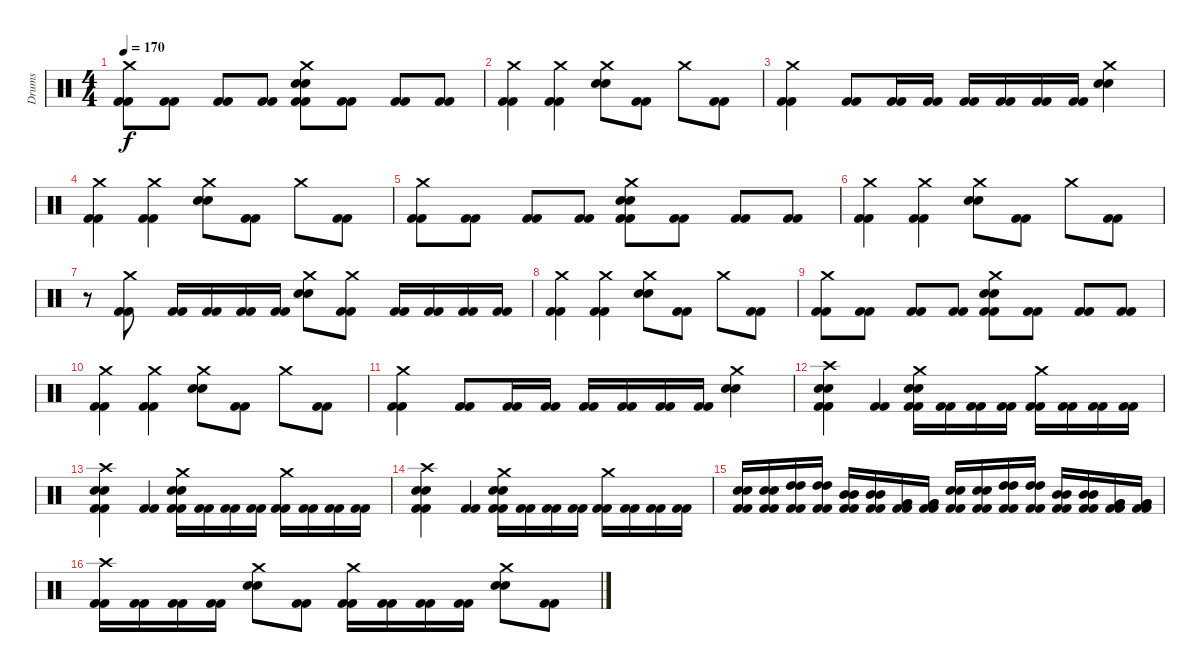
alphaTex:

\track ("Drums" "Drums") {instrument percussion}
\staff {score}
\articulation defaults
\ts (4 4)
\tempo 170
\clef neutral
\ks c
("Crash medium (hit)" "Kick (hit) 2" "Kick (hit) 2").8{dy f} ("Kick (hit) 2" "Kick (hit) 2").8 ("Kick (hit) 2" "Kick (hit) 2").8 ("Kick (hit) 2" "Kick (hit) 2").8 ("Crash medium (hit)" "Snare (hit) 2" "Snare (hit) 2" "Kick (hit) 2" "Kick (hit) 2").8 ("Kick (hit) 2" "Kick (hit) 2").8 ("Kick (hit) 2" "Kick (hit) 2").8 ("Kick (hit) 2" "Kick (hit) 2").8 |
("Crash medium (hit)" "Kick (hit) 2" "Kick (hit) 2").4 ("Crash medium (hit)" "Kick (hit) 2" "Kick (hit) 2").4 ("Crash medium (hit)" "Snare (hit) 2" "Snare (hit) 2").8 ("Kick (hit) 2" "Kick (hit) 2").8 "Crash medium (hit)".8 ("Kick (hit) 2" "Kick (hit) 2").8 |
("Crash medium (hit)" "Kick (hit) 2" "Kick (hit) 2").4 ("Kick (hit) 2" "Kick (hit) 2").8 ("Kick (hit) 2" "Kick (hit) 2").16 ("Kick (hit) 2" "Kick (hit) 2").16 ("Kick (hit) 2" "Kick (hit) 2").16 ("Kick (hit) 2" "Kick (hit) 2").16 ("Kick (hit) 2" "Kick (hit) 2").16 ("Kick (hit) 2" "Kick (hit) 2").16 ("Crash medium (hit)" "Snare (hit) 2" "Snare (hit) 2").4 |
("Crash medium (hit)" "Kick (hit) 2" "Kick (hit) 2").4 ("Crash medium (hit)" "Kick (hit) 2" "Kick (hit) 2").4 ("Crash medium (hit)" "Snare (hit) 2" "Snare (hit) 2").8 ("Kick (hit) 2" "Kick (hit) 2").8 "Crash medium (hit)".8 ("Kick (hit) 2" "Kick (hit) 2").8 |
("Crash medium (hit)" "Kick (hit) 2" "Kick (hit) 2").8 ("Kick (hit) 2" "Kick (hit) 2").8 ("Kick (hit) 2" "Kick (hit) 2").8 ("Kick (hit) 2" "Kick (hit) 2").8 ("Crash medium (hit)" "Snare (hit) 2" "Snare (hit) 2" "Kick (hit) 2" "Kick (hit) 2").8 ("Kick (hit) 2" "Kick (hit) 2").8 ("Kick (hit) 2" "Kick (hit) 2").8 ("Kick (hit) 2" "Kick (hit) 2").8 |
("Crash medium (hit)" "Kick (hit) 2" "Kick (hit) 2").4 ("Crash medium (hit)" "Kick (hit) 2" "Kick (hit) 2").4 ("Crash medium (hit)" "Snare (hit) 2" "Snare (hit) 2").8 ("Kick (hit) 2" "Kick (hit) 2").8 "Crash medium (hit)".8 ("Kick (hit) 2" "Kick (hit) 2").8 |
r.8 ("Crash medium (hit)" "Kick (hit) 2" "Kick (hit) 2").8 ("Kick (hit) 2" "Kick (hit) 2").16 ("Kick (hit) 2" "Kick (hit) 2").16 ("Kick (hit) 2" "Kick (hit) 2").16 ("Kick (hit) 2" "Kick (hit) 2").16 ("Crash medium (hit)" "Snare (hit) 2" "Snare (hit) 2").8 ("Crash medium (hit)" "Kick (hit) 2" "Kick (hit) 2").8 ("Kick (hit) 2" "Kick (hit) 2").16 ("Kick (hit) 2" "Kick (hit) 2").16 ("Kick (hit) 2" "Kick (hit) 2").16 ("Kick (hit) 2" "Kick (hit) 2").16 |
("Crash medium (hit)" "Kick (hit) 2" "Kick (hit) 2").4 ("Crash medium (hit)" "Kick (hit) 2" "Kick (hit) 2").4 ("Crash medium (hit)" "Snare (hit) 2" "Snare (hit) 2").8 ("Kick (hit) 2" "Kick (hit) 2").8 "Crash medium (hit)".8 ("Kick (hit) 2" "Kick (hit) 2").8 |
("Crash medium (hit)" "Kick (hit) 2" "Kick (hit) 2").8 ("Kick (hit) 2" "Kick (hit) 2").8 ("Kick (hit) 2" "Kick (hit) 2").8 ("Kick (hit) 2" "Kick (hit) 2").8 ("Crash medium (hit)" "Snare (hit) 2" "Snare (hit) 2" "Kick (hit) 2" "Kick (hit) 2").8 ("Kick (hit) 2" "Kick (hit) 2").8 ("Kick (hit) 2" "Kick (hit) 2").8 ("Kick (hit) 2" "Kick (hit) 2").8 |
("Crash medium (hit)" "Kick (hit) 2" "Kick (hit) 2").4 ("Crash medium (hit)" "Kick (hit) 2" "Kick (hit) 2").4 ("Crash medium (hit)" "Snare (hit) 2" "Snare (hit) 2").8 ("Kick (hit) 2" "Kick (hit) 2").8 "Crash medium (hit)".8 ("Kick (hit) 2" "Kick (hit) 2").8 |
("Crash medium (hit)" "Kick (hit) 2" "Kick (hit) 2").4 ("Kick (hit) 2" "Kick (hit) 2").8 ("Kick (hit) 2" "Kick (hit) 2").16 ("Kick (hit) 2" "Kick (hit) 2").16 ("Kick (hit) 2" "Kick (hit) 2").16 ("Kick (hit) 2" "Kick (hit) 2").16 ("Kick (hit) 2" "Kick (hit) 2").16 ("Kick (hit) 2" "Kick (hit) 2").16 ("Crash medium (hit)" "Snare (hit) 2" "Snare (hit) 2").4 |
("Snare (hit) 2" "Snare (hit) 2" "Crash high (hit)" "Kick (hit) 2" "Kick (hit) 2").4 ("Kick (hit) 2" "Kick (hit) 2").4 ("Crash medium (hit)" "Snare (hit) 2" "Snare (hit) 2" "Kick (hit) 2" "Kick (hit) 2").16 ("Kick (hit) 2" "Kick (hit) 2").16 ("Kick (hit) 2" "Kick (hit) 2").16 ("Kick (hit) 2" "Kick (hit) 2").16 ("Crash medium (hit)" "Kick (hit) 2" "Kick (hit) 2").16 ("Kick (hit) 2" "Kick (hit) 2").16 ("Kick (hit) 2" "Kick (hit) 2").16 ("Kick (hit) 2" "Kick (hit) 2").16 |
("Snare (hit) 2" "Snare (hit) 2" "Crash high (hit)" "Kick (hit) 2" "Kick (hit) 2").4 ("Kick (hit) 2" "Kick (hit) 2").4 ("Crash medium (hit)" "Snare (hit) 2" "Snare (hit) 2" "Kick (hit) 2" "Kick (hit) 2").16 ("Kick (hit) 2" "Kick (hit) 2").16 ("Kick (hit) 2" "Kick (hit) 2").16 ("Kick (hit) 2" "Kick (hit) 2").16 ("Crash medium (hit)" "Kick (hit) 2" "Kick (hit) 2").16 ("Kick (hit) 2" "Kick (hit) 2").16 ("Kick (hit) 2" "Kick (hit) 2").16 ("Kick (hit) 2" "Kick (hit) 2").16 |
("Snare (hit) 2" "Snare (hit) 2" "Crash high (hit)" "Kick (hit) 2" "Kick (hit) 2").4 ("Kick (hit) 2" "Kick (hit) 2").4 ("Crash medium (hit)" "Snare (hit) 2" "Snare (hit) 2" "Kick (hit) 2" "Kick (hit) 2").16 ("Kick (hit) 2" "Kick (hit) 2").16 ("Kick (hit) 2" "Kick (hit) 2").16 ("Kick (hit) 2" "Kick (hit) 2").16 ("Crash medium (hit)" "Kick (hit) 2" "Kick (hit) 2").16 ("Kick (hit) 2" "Kick (hit) 2").16 ("Kick (hit) 2" "Kick (hit) 2").16 ("Kick (hit) 2" "Kick (hit) 2").16 |
("Snare (hit) 2" "Snare (hit) 2" "Kick (hit) 2" "Kick (hit) 2").16 ("Snare (hit) 2" "Snare (hit) 2" "Kick (hit) 2" "Kick (hit) 2").16 ("High Tom (hit)" "High Tom (hit)" "Kick (hit) 2" "Kick (hit) 2").16 ("High Tom (hit)" "High Tom (hit)" "Kick (hit) 2" "Kick (hit) 2").16 ("Mid Tom (hit)" "Mid Tom (hit)" "Kick (hit) 2" "Kick (hit) 2").16 ("Mid Tom (hit)" "Mid Tom (hit)" "Kick (hit) 2" "Kick (hit) 2").16 ("Very Low Tom (hit)" "Very Low Tom (hit)" "Kick (hit) 2" "Kick (hit) 2").16 ("Very Low Tom (hit)" "Very Low Tom (hit)" "Kick (hit) 2" "Kick (hit) 2").16 ("Snare (hit) 2" "Snare (hit) 2" "Kick (hit) 2" "Kick (hit) 2").16 ("Snare (hit) 2" "Snare (hit) 2" "Kick (hit) 2" "Kick (hit) 2").16 ("High Tom (hit)" "High Tom (hit)" "Kick (hit) 2" "Kick (hit) 2").16 ("High Tom (hit)" "High Tom (hit)" "Kick (hit) 2" "Kick (hit) 2").16 ("Mid Tom (hit)" "Mid Tom (hit)" "Kick (hit) 2" "Kick (hit) 2").16 ("Mid Tom (hit)" "Mid Tom (hit)" "Kick (hit) 2" "Kick (hit) 2").16 ("Very Low Tom (hit)" "Very Low Tom (hit)" "Kick (hit) 2" "Kick (hit) 2").16 ("Very Low Tom (hit)" "Very Low Tom (hit)" "Kick (hit) 2" "Kick (hit) 2").16 |
("Crash high (hit)" "Kick (hit) 2" "Kick (hit) 2").16 ("Kick (hit) 2" "Kick (hit) 2").16 ("Kick (hit) 2" "Kick (hit) 2").16 ("Kick (hit) 2" "Kick (hit) 2").16 ("Crash medium (hit)" "Snare (hit) 2" "Snare (hit) 2").8 ("Kick (hit) 2" "Kick (hit) 2").8 ("Crash medium (hit)" "Kick (hit) 2" "Kick (hit) 2").16 ("Kick (hit) 2" "Kick (hit) 2").16 ("Kick (hit) 2" "Kick (hit) 2").16 ("Kick (hit) 2" "Kick (hit) 2").16 ("Crash medium (hit)" "Snare (hit) 2" "Snare (hit) 2").8 ("Kick (hit) 2" "Kick (hit) 2").8
